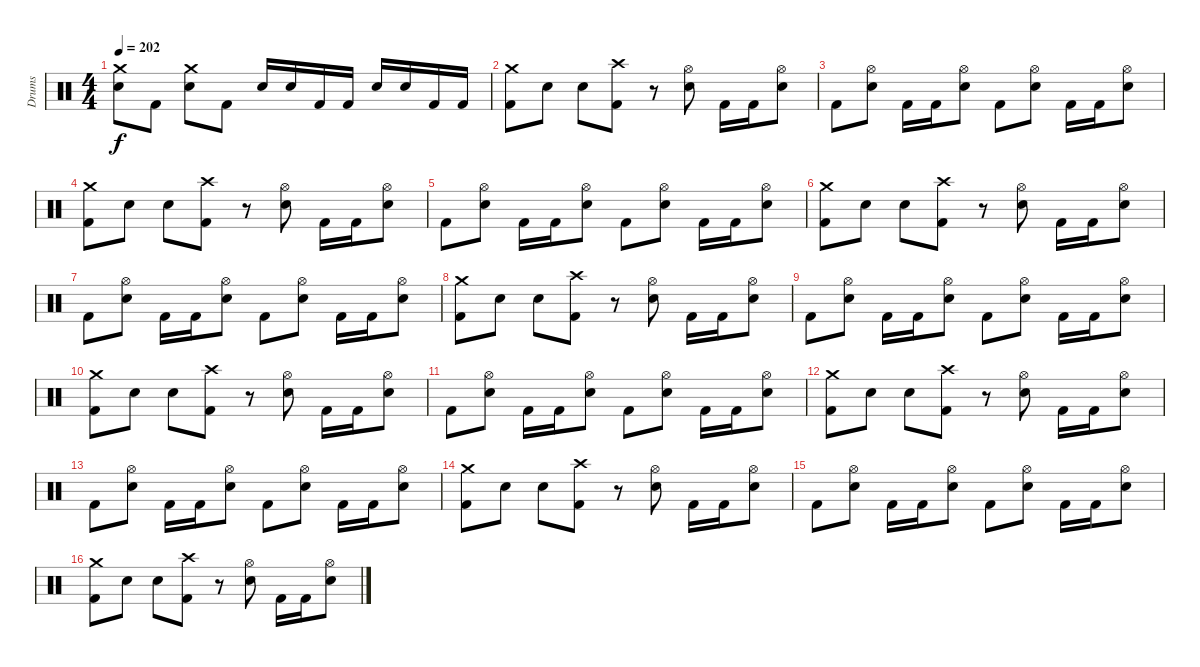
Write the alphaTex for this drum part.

\track ("Drums" "Drums") {instrument percussion}
\staff {score}
\articulation defaults
\ts (4 4)
\tempo 202
\clef neutral
\ks c
("Crash medium (hit)" "Electric Snare (hit)").8{dy f} "Kick (hit) 2".8 ("Crash medium (hit)" "Electric Snare (hit)").8 "Kick (hit) 2".8 "Electric Snare (hit)".16 "Electric Snare (hit)".16 "Kick (hit) 2".16 "Kick (hit) 2".16 "Electric Snare (hit)".16 "Electric Snare (hit)".16 "Kick (hit) 2".16 "Kick (hit) 2".16 |
("Crash medium (hit)" "Kick (hit) 2").8 "Electric Snare (hit)".8 "Electric Snare (hit)".8 ("Crash high (hit)" "Kick (hit) 2").8 r.8 ("Hi-Hat (open)" "Electric Snare (hit)").8 "Kick (hit) 2".16 "Kick (hit) 2".16 ("Hi-Hat (open)" "Electric Snare (hit)").8 |
"Kick (hit) 2".8 ("Hi-Hat (open)" "Electric Snare (hit)").8 "Kick (hit) 2".16 "Kick (hit) 2".16 ("Hi-Hat (open)" "Electric Snare (hit)").8 "Kick (hit) 2".8 ("Hi-Hat (open)" "Electric Snare (hit)").8 "Kick (hit) 2".16 "Kick (hit) 2".16 ("Hi-Hat (open)" "Electric Snare (hit)").8 |
("Crash medium (hit)" "Kick (hit) 2").8 "Electric Snare (hit)".8 "Electric Snare (hit)".8 ("Crash high (hit)" "Kick (hit) 2").8 r.8 ("Hi-Hat (open)" "Electric Snare (hit)").8 "Kick (hit) 2".16 "Kick (hit) 2".16 ("Hi-Hat (open)" "Electric Snare (hit)").8 |
"Kick (hit) 2".8 ("Hi-Hat (open)" "Electric Snare (hit)").8 "Kick (hit) 2".16 "Kick (hit) 2".16 ("Hi-Hat (open)" "Electric Snare (hit)").8 "Kick (hit) 2".8 ("Hi-Hat (open)" "Electric Snare (hit)").8 "Kick (hit) 2".16 "Kick (hit) 2".16 ("Hi-Hat (open)" "Electric Snare (hit)").8 |
("Crash medium (hit)" "Kick (hit) 2").8 "Electric Snare (hit)".8 "Electric Snare (hit)".8 ("Crash high (hit)" "Kick (hit) 2").8 r.8 ("Hi-Hat (open)" "Electric Snare (hit)").8 "Kick (hit) 2".16 "Kick (hit) 2".16 ("Hi-Hat (open)" "Electric Snare (hit)").8 |
"Kick (hit) 2".8 ("Hi-Hat (open)" "Electric Snare (hit)").8 "Kick (hit) 2".16 "Kick (hit) 2".16 ("Hi-Hat (open)" "Electric Snare (hit)").8 "Kick (hit) 2".8 ("Hi-Hat (open)" "Electric Snare (hit)").8 "Kick (hit) 2".16 "Kick (hit) 2".16 ("Hi-Hat (open)" "Electric Snare (hit)").8 |
("Crash medium (hit)" "Kick (hit) 2").8 "Electric Snare (hit)".8 "Electric Snare (hit)".8 ("Crash high (hit)" "Kick (hit) 2").8 r.8 ("Hi-Hat (open)" "Electric Snare (hit)").8 "Kick (hit) 2".16 "Kick (hit) 2".16 ("Hi-Hat (open)" "Electric Snare (hit)").8 |
"Kick (hit) 2".8 ("Hi-Hat (open)" "Electric Snare (hit)").8 "Kick (hit) 2".16 "Kick (hit) 2".16 ("Hi-Hat (open)" "Electric Snare (hit)").8 "Kick (hit) 2".8 ("Hi-Hat (open)" "Electric Snare (hit)").8 "Kick (hit) 2".16 "Kick (hit) 2".16 ("Hi-Hat (open)" "Electric Snare (hit)").8 |
("Crash medium (hit)" "Kick (hit) 2").8 "Electric Snare (hit)".8 "Electric Snare (hit)".8 ("Crash high (hit)" "Kick (hit) 2").8 r.8 ("Hi-Hat (open)" "Electric Snare (hit)").8 "Kick (hit) 2".16 "Kick (hit) 2".16 ("Hi-Hat (open)" "Electric Snare (hit)").8 |
"Kick (hit) 2".8 ("Hi-Hat (open)" "Electric Snare (hit)").8 "Kick (hit) 2".16 "Kick (hit) 2".16 ("Hi-Hat (open)" "Electric Snare (hit)").8 "Kick (hit) 2".8 ("Hi-Hat (open)" "Electric Snare (hit)").8 "Kick (hit) 2".16 "Kick (hit) 2".16 ("Hi-Hat (open)" "Electric Snare (hit)").8 |
("Crash medium (hit)" "Kick (hit) 2").8 "Electric Snare (hit)".8 "Electric Snare (hit)".8 ("Crash high (hit)" "Kick (hit) 2").8 r.8 ("Hi-Hat (open)" "Electric Snare (hit)").8 "Kick (hit) 2".16 "Kick (hit) 2".16 ("Hi-Hat (open)" "Electric Snare (hit)").8 |
"Kick (hit) 2".8 ("Hi-Hat (open)" "Electric Snare (hit)").8 "Kick (hit) 2".16 "Kick (hit) 2".16 ("Hi-Hat (open)" "Electric Snare (hit)").8 "Kick (hit) 2".8 ("Hi-Hat (open)" "Electric Snare (hit)").8 "Kick (hit) 2".16 "Kick (hit) 2".16 ("Hi-Hat (open)" "Electric Snare (hit)").8 |
("Crash medium (hit)" "Kick (hit) 2").8 "Electric Snare (hit)".8 "Electric Snare (hit)".8 ("Crash high (hit)" "Kick (hit) 2").8 r.8 ("Hi-Hat (open)" "Electric Snare (hit)").8 "Kick (hit) 2".16 "Kick (hit) 2".16 ("Hi-Hat (open)" "Electric Snare (hit)").8 |
"Kick (hit) 2".8 ("Hi-Hat (open)" "Electric Snare (hit)").8 "Kick (hit) 2".16 "Kick (hit) 2".16 ("Hi-Hat (open)" "Electric Snare (hit)").8 "Kick (hit) 2".8 ("Hi-Hat (open)" "Electric Snare (hit)").8 "Kick (hit) 2".16 "Kick (hit) 2".16 ("Hi-Hat (open)" "Electric Snare (hit)").8 |
("Crash medium (hit)" "Kick (hit) 2").8 "Electric Snare (hit)".8 "Electric Snare (hit)".8 ("Crash high (hit)" "Kick (hit) 2").8 r.8 ("Hi-Hat (open)" "Electric Snare (hit)").8 "Kick (hit) 2".16 "Kick (hit) 2".16 ("Hi-Hat (open)" "Electric Snare (hit)").8
